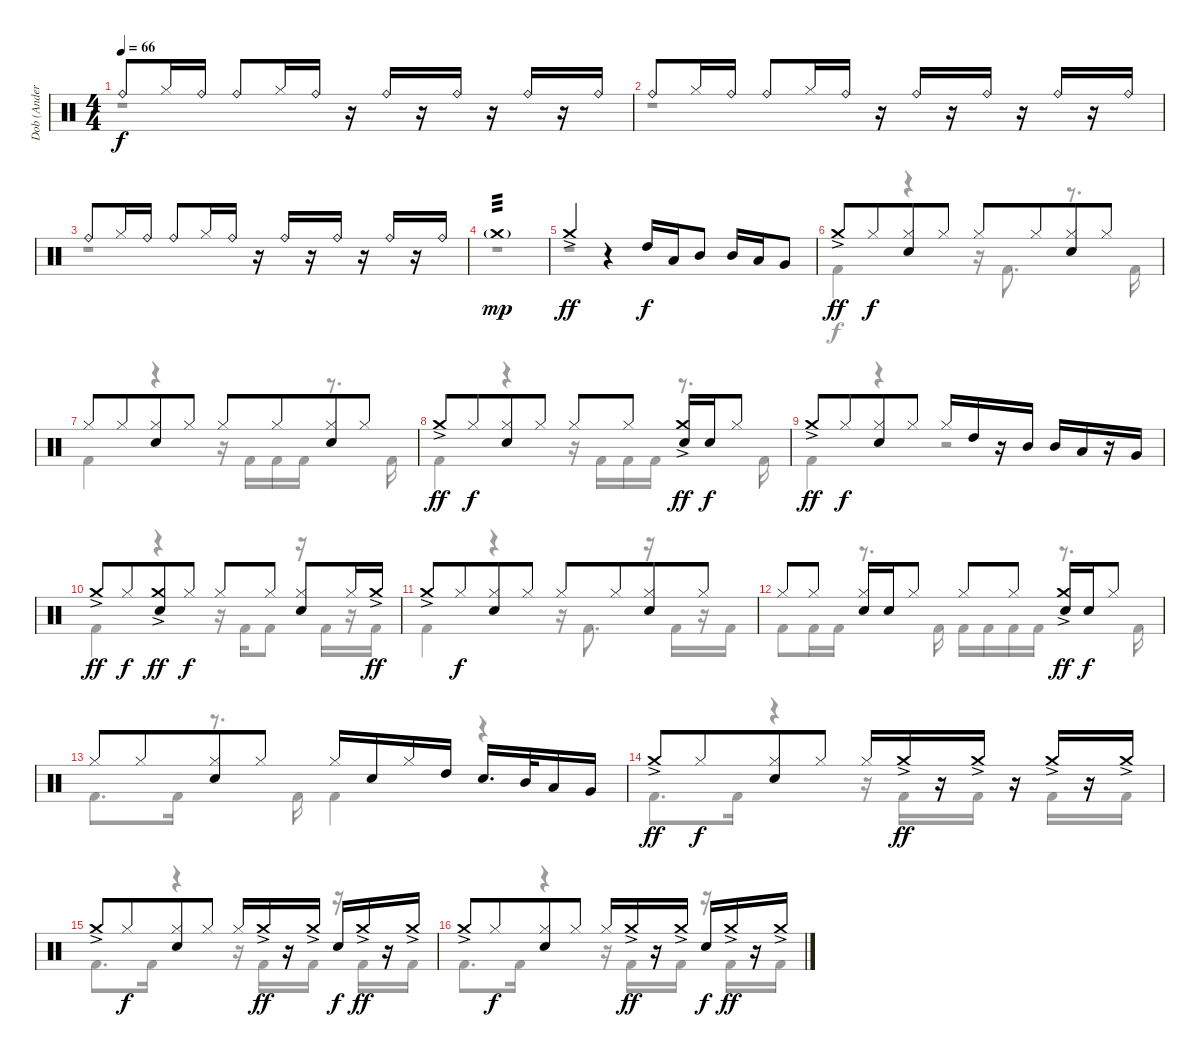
\track ("Dob (Anders Johansson)" "Dob (Ander") {instrument percussion}
\staff {score}
\articulation defaults
\voice
\ts (4 4)
\tempo 66
\clef neutral
\ks c "Ride (bell)".8{dy f} "Hi-Hat (closed)".16 "Ride (bell)".16 "Ride (bell)".8 "Hi-Hat (closed)".16 "Ride (bell)".16
r.16 "Ride (bell)".16 r.16 "Ride (bell)".16 r.16 "Ride (bell)".16 r.16 "Ride (bell)".16 |
"Ride (bell)".8 "Hi-Hat (closed)".16 "Ride (bell)".16 "Ride (bell)".8 "Hi-Hat (closed)".16 "Ride (bell)".16 r.16 "Ride (bell)".16 r.16 "Ride (bell)".16 r.16 "Ride (bell)".16 r.16 "Ride (bell)".16 |
"Ride (bell)".8 "Hi-Hat (closed)".16 "Ride (bell)".16 "Ride (bell)".8 "Hi-Hat (closed)".16 "Ride (bell)".16 r.16 "Ride (bell)".16 r.16 "Ride (bell)".16 r.16 "Ride (bell)".16 r.16 "Ride (bell)".16 |
"Crash medium (hit)"{g}.1{tp 3 dy mp volume 13} |
"Crash medium (hit)"{ac}.4{dy ff} r.4 "High Tom (hit)".16{dy f} "Low Tom (hit)".16 "Mid Tom (hit)".8 "Mid Tom (hit)".16 "Low Tom (hit)".16 "Very Low Tom (hit)".8 |
"Crash medium (hit)"{ac}.8{dy ff} "Hi-Hat (closed)".8{dy f beam merge} ("Hi-Hat (closed)" "Electric Snare (hit)").8 "Hi-Hat (closed)".8 "Hi-Hat (closed)".8 "Hi-Hat (closed)".8{beam merge} ("Hi-Hat (closed)" "Electric Snare (hit)").8 "Hi-Hat (closed)".8 |
"Hi-Hat (closed)".8 "Hi-Hat (closed)".8{beam merge} ("Hi-Hat (closed)" "Electric Snare (hit)").8 "Hi-Hat (closed)".8 "Hi-Hat (closed)".8 "Hi-Hat (closed)".8{beam merge} ("Hi-Hat (closed)" "Electric Snare (hit)").8 "Hi-Hat (closed)".8 |
"Crash medium (hit)"{ac}.8{dy ff} "Hi-Hat (closed)".8{dy f beam merge} ("Hi-Hat (closed)" "Electric Snare (hit)").8 "Hi-Hat (closed)".8 "Hi-Hat (closed)".8 "Hi-Hat (closed)".8 ("Crash medium (hit)"{ac} "Electric Snare (hit)").16{dy ff} "Electric Snare (hit)".16{dy f} "Hi-Hat (closed)".8 |
"Crash medium (hit)"{ac}.8{dy ff} "Hi-Hat (closed)".8{dy f beam merge} ("Hi-Hat (closed)" "Electric Snare (hit)").8 "Hi-Hat (closed)".8 "Hi-Hat (closed)".16 "High Tom (hit)".16 r.16 "Mid Tom (hit)".16 "Mid Tom (hit)".16 "Low Tom (hit)".16 r.16 "Very Low Tom (hit)".16 |
"Crash medium (hit)"{ac}.8{dy ff} "Hi-Hat (closed)".8{dy f beam merge} ("Crash medium (hit)"{ac} "Electric Snare (hit)").8{dy ff} "Hi-Hat (closed)".8{dy f} "Hi-Hat (closed)".8 "Hi-Hat (closed)".8 ("Hi-Hat (closed)" "Electric Snare (hit)").8 "Hi-Hat (closed)".16 "Crash medium (hit)"{ac}.16{dy ff} |
"Crash medium (hit)"{ac}.8 "Hi-Hat (closed)".8{dy f beam merge} ("Hi-Hat (closed)" "Electric Snare (hit)").8 "Hi-Hat (closed)".8 "Hi-Hat (closed)".8 "Hi-Hat (closed)".8{beam merge} ("Hi-Hat (closed)" "Electric Snare (hit)").8 "Hi-Hat (closed)".8 |
"Hi-Hat (closed)".8 "Hi-Hat (closed)".8 ("Hi-Hat (closed)" "Electric Snare (hit)").16 "Electric Snare (hit)".16 "Hi-Hat (closed)".8 "Hi-Hat (closed)".8 "Hi-Hat (closed)".8 ("Crash medium (hit)"{ac} "Electric Snare (hit)").16{dy ff} "Electric Snare (hit)".16{dy f} "Hi-Hat (closed)".8 |
"Hi-Hat (closed)".8 "Hi-Hat (closed)".8{beam merge} ("Hi-Hat (closed)" "Electric Snare (hit)").8 "Hi-Hat (closed)".8 "Hi-Hat (closed)".16 "Electric Snare (hit)".16 "Hi-Hat (closed)".16 "High Tom (hit)".16 "Electric Snare (hit)".16{d} "Mid Tom (hit)".32 "Low Tom (hit)".16 "Very Low Tom (hit)".16 |
"Crash medium (hit)"{ac}.8{dy ff} "Hi-Hat (closed)".8{dy f beam merge} ("Hi-Hat (closed)" "Electric Snare (hit)").8 "Hi-Hat (closed)".8 "Hi-Hat (closed)".16 "Crash medium (hit)"{ac}.16{dy ff} r.16 "Crash medium (hit)"{ac}.16 r.16 "Crash medium (hit)"{ac}.16 r.16 "Crash medium (hit)"{ac}.16 |
"Crash medium (hit)"{ac}.8 "Hi-Hat (closed)".8{dy f beam merge} ("Hi-Hat (closed)" "Electric Snare (hit)").8 "Hi-Hat (closed)".8 "Hi-Hat (closed)".16 "Crash medium (hit)"{ac}.16{dy ff} r.16 "Crash medium (hit)"{ac}.16 "Electric Snare (hit)".16{dy f} "Crash medium (hit)"{ac}.16{dy ff} r.16 "Crash medium (hit)"{ac}.16 |
"Crash medium (hit)"{ac}.8 "Hi-Hat (closed)".8{dy f beam merge} ("Hi-Hat (closed)" "Electric Snare (hit)").8 "Hi-Hat (closed)".8 "Hi-Hat (closed)".16 "Crash medium (hit)"{ac}.16{dy ff} r.16 "Crash medium (hit)"{ac}.16 "Electric Snare (hit)".16{dy f} "Crash medium (hit)"{ac}.16{dy ff} r.16 "Crash medium (hit)"{ac}.16
\voice
\clef neutral
\ottava regular
\simile none
\ks c
r.1{dy f} |
r.1 |
r.1 |
r.1 |
r.1 |
"Kick (hit) 2".4 r.4 r.16 "Kick (hit) 2".8{d} r.8{d} "Kick (hit) 2".16 |
"Kick (hit) 2".4 r.4 r.16 "Kick (hit) 2".16 "Kick (hit) 2".16 "Kick (hit) 2".16 r.8{d} "Kick (hit) 2".16 |
"Kick (hit) 2".4 r.4 r.16 "Kick (hit) 2".16 "Kick (hit) 2".16 "Kick (hit) 2".16 r.8{d} "Kick (hit) 2".16 |
"Kick (hit) 2".4 r.4 r.2 |
"Kick (hit) 2".4 r.4 r.16 "Kick (hit) 2".16 "Kick (hit) 2".8 r.16 "Kick (hit) 2".16 r.16 "Kick (hit) 2".16 |
"Kick (hit) 2".4 r.4 r.16 "Kick (hit) 2".8{d} r.16 "Kick (hit) 2".16 r.16 "Kick (hit) 2".16 |
"Kick (hit) 2".8 "Kick (hit) 2".16 "Kick (hit) 2".16 r.8{d} "Kick (hit) 2".16 "Kick (hit) 2".16 "Kick (hit) 2".16 "Kick (hit) 2".16 "Kick (hit) 2".16 r.8{d} "Kick (hit) 2".16 |
"Kick (hit) 2".8{d} "Kick (hit) 2".16 r.8{d} "Kick (hit) 2".16 "Kick (hit) 2".4 r.4 |
"Kick (hit) 2".8{d} "Kick (hit) 2".16 r.4 r.16 "Kick (hit) 2".16 r.16 "Kick (hit) 2".16 r.16 "Kick (hit) 2".16 r.16 "Kick (hit) 2".16 |
"Kick (hit) 2".8{d} "Kick (hit) 2".16 r.4 r.16 "Kick (hit) 2".16 r.16 "Kick (hit) 2".16 r.16 "Kick (hit) 2".16 r.16 "Kick (hit) 2".16 |
"Kick (hit) 2".8{d} "Kick (hit) 2".16 r.4 r.16 "Kick (hit) 2".16 r.16 "Kick (hit) 2".16 r.16 "Kick (hit) 2".16 r.16 "Kick (hit) 2".16
